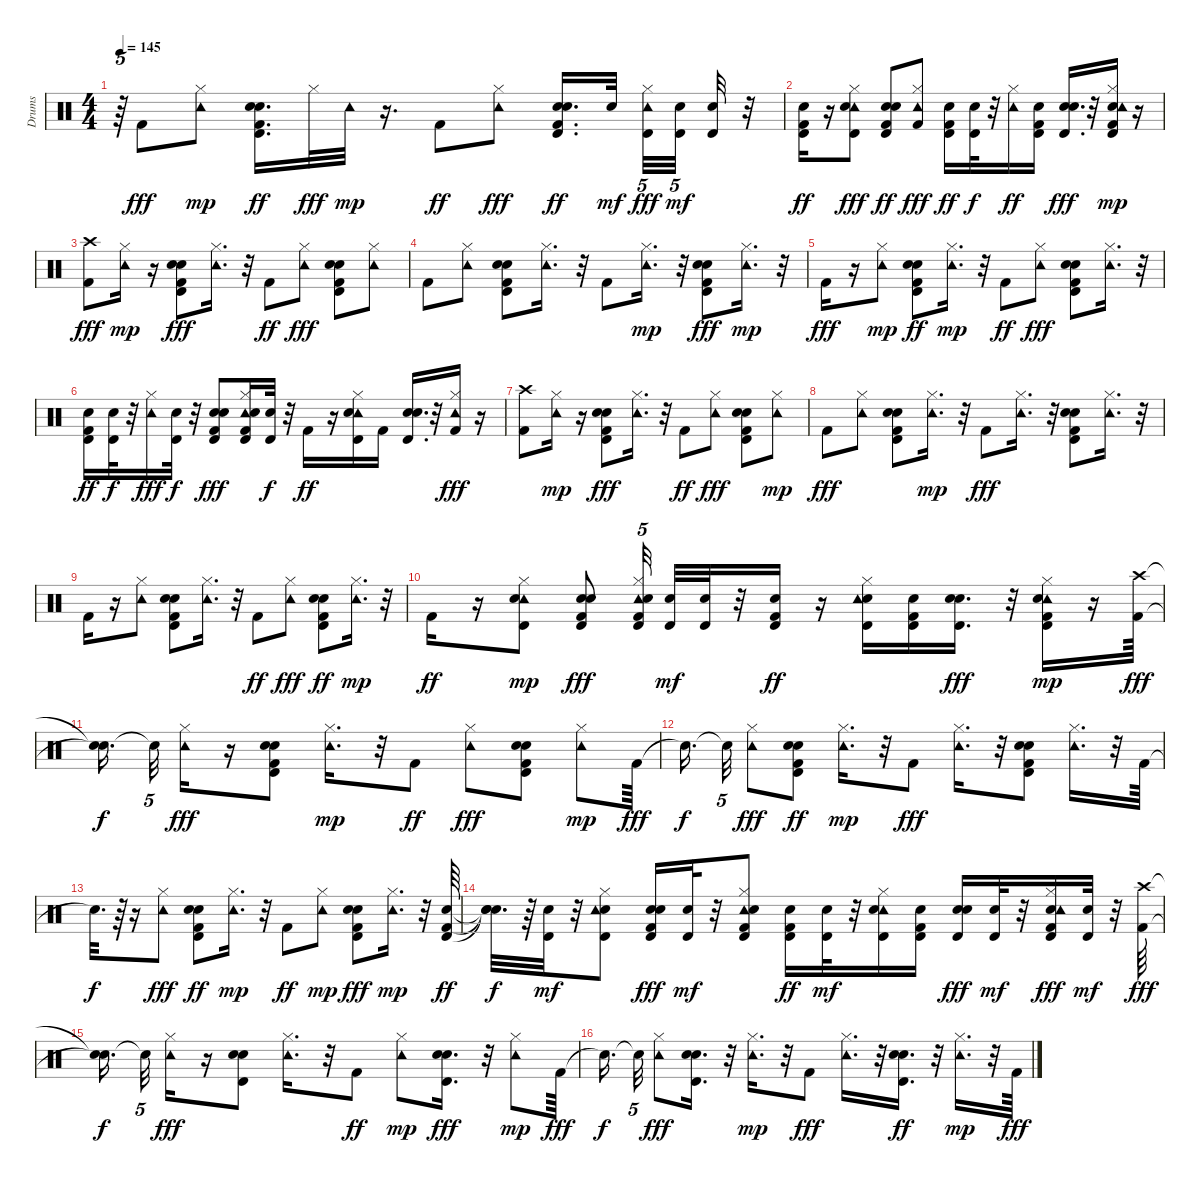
\track ("Drums" "Drums") {instrument percussion}
\staff {score}
\articulation defaults
\ts (4 4)
\tempo 145
\clef neutral
\ks c
r.64{tu (5 4) dy mp} "Kick (hit) 2".8{dy fff} ("Hi-Hat (closed)" "Tambourine (hit)").8{dy mp} ("Hand Clap (hit)" "Kick (hit) 2" "Snare (hit) 2" "Timbale high (hit)").16{d dy ff} "Hi-Hat (closed)".32{dy fff} "Tambourine (hit)".32{dy mp} r.16{d} "Kick (hit) 2".8{dy ff} ("Tambourine (hit)" "Hi-Hat (closed)").8{dy fff} ("Kick (hit) 2" "Hand Clap (hit)" "Snare (hit) 2" "Timbale high (hit)").16{d dy ff} "Snare (hit) 2".32{dy mf} ("Timbale high (hit)" "Tambourine (hit)" "Hi-Hat (closed)").32{tu (5 4) dy fff} ("Timbale high (hit)" "Snare (hit) 2").32{tu (5 4) dy mf} ("Snare (hit) 2" "Timbale high (hit)").32 r.32 |
("Kick (hit) 2" "Timbale high (hit)" "Snare (hit) 2").16{dy ff} r.16 ("Tambourine (hit)" "Timbale high (hit)" "Snare (hit) 2" "Hi-Hat (closed)").8{dy fff} ("Kick (hit) 2" "Timbale high (hit)" "Hand Clap (hit)" "Snare (hit) 2").8{dy ff} ("Tambourine (hit)" "Hi-Hat (closed)" "Kick (hit) 2").8{dy fff} ("Kick (hit) 2" "Snare (hit) 2" "Timbale high (hit)").16{dy ff} ("Timbale high (hit)" "Snare (hit) 2").32{dy f} r.32 ("Tambourine (hit)" "Hi-Hat (closed)").16{dy ff} ("Timbale high (hit)" "Kick (hit) 2" "Snare (hit) 2").16 ("Snare (hit) 2" "Timbale high (hit)" "Hand Clap (hit)").16{d dy fff} r.32 ("Snare (hit) 2" "Timbale high (hit)" "Hi-Hat (closed)" "Tambourine (hit)" "Kick (hit) 2").16{dy mp} r.16 |
("Kick (hit) 2" "Crash high (hit)").8{dy fff} ("Hi-Hat (closed)" "Tambourine (hit)").16{dy mp} r.16 ("Snare (hit) 2" "Kick (hit) 2" "Timbale high (hit)" "Hand Clap (hit)").8{dy fff} ("Tambourine (hit)" "Hi-Hat (closed)").16{d} r.32 "Kick (hit) 2".8{dy ff} ("Tambourine (hit)" "Hi-Hat (closed)").8{dy fff} ("Kick (hit) 2" "Snare (hit) 2" "Timbale high (hit)" "Hand Clap (hit)").8 ("Tambourine (hit)" "Hi-Hat (closed)").8 |
"Kick (hit) 2".8 ("Tambourine (hit)" "Hi-Hat (closed)").8 ("Timbale high (hit)" "Kick (hit) 2" "Snare (hit) 2" "Hand Clap (hit)").8 ("Tambourine (hit)" "Hi-Hat (closed)").16{d} r.32 "Kick (hit) 2".8 ("Hi-Hat (closed)" "Tambourine (hit)").16{d dy mp} r.32 ("Snare (hit) 2" "Kick (hit) 2" "Hand Clap (hit)" "Timbale high (hit)").8{dy fff} ("Hi-Hat (closed)" "Tambourine (hit)").16{d dy mp} r.32 |
"Kick (hit) 2".16{dy fff} r.16 ("Hi-Hat (closed)" "Tambourine (hit)").8{dy mp} ("Timbale high (hit)" "Hand Clap (hit)" "Kick (hit) 2" "Snare (hit) 2").8{dy ff} ("Hi-Hat (closed)" "Tambourine (hit)").16{d dy mp} r.32 "Kick (hit) 2".8{dy ff} ("Tambourine (hit)" "Hi-Hat (closed)").8{dy fff} ("Snare (hit) 2" "Timbale high (hit)" "Kick (hit) 2" "Hand Clap (hit)").8 ("Tambourine (hit)" "Hi-Hat (closed)").16{d} r.32 |
("Snare (hit) 2" "Kick (hit) 2" "Timbale high (hit)").16{dy ff} ("Timbale high (hit)" "Snare (hit) 2").32{dy f} r.32 ("Tambourine (hit)" "Hi-Hat (closed)").16{dy fff} ("Snare (hit) 2" "Timbale high (hit)").32{dy f} r.32 ("Snare (hit) 2" "Kick (hit) 2" "Timbale high (hit)" "Hand Clap (hit)").8{dy fff} ("Tambourine (hit)" "Kick (hit) 2" "Hi-Hat (closed)" "Snare (hit) 2" "Timbale high (hit)").16 ("Snare (hit) 2" "Timbale high (hit)").32{dy f} r.32 "Kick (hit) 2".16{dy ff} r.16 ("Tambourine (hit)" "Snare (hit) 2" "Hi-Hat (closed)" "Timbale high (hit)").16 "Kick (hit) 2".16 ("Hand Clap (hit)" "Timbale high (hit)" "Snare (hit) 2").16{d} r.32 ("Kick (hit) 2" "Tambourine (hit)" "Hi-Hat (closed)").16{dy fff} r.16 |
("Crash high (hit)" "Kick (hit) 2").8 ("Hi-Hat (closed)" "Tambourine (hit)").16{dy mp} r.16 ("Snare (hit) 2" "Kick (hit) 2" "Timbale high (hit)" "Hand Clap (hit)").8{dy fff} ("Tambourine (hit)" "Hi-Hat (closed)").16{d} r.32 "Kick (hit) 2".8{dy ff} ("Tambourine (hit)" "Hi-Hat (closed)").8{dy fff} ("Snare (hit) 2" "Kick (hit) 2" "Timbale high (hit)" "Hand Clap (hit)").8 ("Hi-Hat (closed)" "Tambourine (hit)").8{dy mp} |
"Kick (hit) 2".8{dy fff} ("Tambourine (hit)" "Hi-Hat (closed)").8 ("Timbale high (hit)" "Snare (hit) 2" "Kick (hit) 2" "Hand Clap (hit)").8 ("Hi-Hat (closed)" "Tambourine (hit)").16{d dy mp} r.32 "Kick (hit) 2".8{dy fff} ("Tambourine (hit)" "Hi-Hat (closed)").16{d} r.32 ("Timbale high (hit)" "Kick (hit) 2" "Snare (hit) 2" "Hand Clap (hit)").8 ("Tambourine (hit)" "Hi-Hat (closed)").16{d} r.32 |
"Kick (hit) 2".16 r.16 ("Tambourine (hit)" "Hi-Hat (closed)").8 ("Kick (hit) 2" "Snare (hit) 2" "Hand Clap (hit)" "Timbale high (hit)").8 ("Tambourine (hit)" "Hi-Hat (closed)").16{d} r.32 "Kick (hit) 2".8{dy ff} ("Tambourine (hit)" "Hi-Hat (closed)").8{dy fff} ("Hand Clap (hit)" "Timbale high (hit)" "Kick (hit) 2" "Snare (hit) 2").8{dy ff} ("Hi-Hat (closed)" "Tambourine (hit)").16{d dy mp} r.32 |
"Kick (hit) 2".16{dy ff} r.16 ("Timbale high (hit)" "Hi-Hat (closed)" "Tambourine (hit)" "Snare (hit) 2").8{dy mp} ("Kick (hit) 2" "Snare (hit) 2" "Hand Clap (hit)" "Timbale high (hit)").8{dy fff} ("Timbale high (hit)" "Tambourine (hit)" "Snare (hit) 2" "Kick (hit) 2" "Hi-Hat (closed)").32{tu (5 4)} ("Timbale high (hit)" "Snare (hit) 2").32{dy mf} ("Snare (hit) 2" "Timbale high (hit)").32 r.32 ("Timbale high (hit)" "Kick (hit) 2" "Snare (hit) 2").16{dy ff} r.16 ("Snare (hit) 2" "Timbale high (hit)" "Tambourine (hit)" "Hi-Hat (closed)").16 ("Kick (hit) 2" "Snare (hit) 2" "Timbale high (hit)").16 ("Timbale high (hit)" "Snare (hit) 2" "Hand Clap (hit)").16{d dy fff} r.32 ("Timbale high (hit)" "Hi-Hat (closed)" "Tambourine (hit)" "Kick (hit) 2" "Snare (hit) 2").16{dy mp} r.16 ("Kick (hit) 2" "Crash high (hit)").64{dy fff} |
("Snare (hit)"{t} "Snare (hit)"{t}).16{d dy f} "Snare (hit)"{t}.32{tu (5 4)} ("Tambourine (hit)" "Hi-Hat (closed)").16{dy fff} r.16 ("Snare (hit) 2" "Timbale high (hit)" "Kick (hit) 2" "Hand Clap (hit)").8 ("Hi-Hat (closed)" "Tambourine (hit)").16{d dy mp} r.32 "Kick (hit) 2".8{dy ff} ("Tambourine (hit)" "Hi-Hat (closed)").8{dy fff} ("Kick (hit) 2" "Timbale high (hit)" "Snare (hit) 2" "Hand Clap (hit)").8 ("Hi-Hat (closed)" "Tambourine (hit)").8{dy mp} "Kick (hit) 2".64{dy fff} |
"Snare (hit)"{t}.16{d dy f} "Snare (hit)"{t}.32{tu (5 4)} ("Tambourine (hit)" "Hi-Hat (closed)").8{dy fff} ("Hand Clap (hit)" "Snare (hit) 2" "Kick (hit) 2" "Timbale high (hit)").8{dy ff} ("Hi-Hat (closed)" "Tambourine (hit)").16{d dy mp} r.32 "Kick (hit) 2".8{dy fff} ("Tambourine (hit)" "Hi-Hat (closed)").16{d} r.32 ("Kick (hit) 2" "Snare (hit) 2" "Timbale high (hit)" "Hand Clap (hit)").8 ("Tambourine (hit)" "Hi-Hat (closed)").16{d} r.32 "Kick (hit) 2".64 |
"Snare (hit)"{t}.32{d dy f} r.64 r.16 ("Tambourine (hit)" "Hi-Hat (closed)").8{dy fff} ("Snare (hit) 2" "Hand Clap (hit)" "Kick (hit) 2" "Timbale high (hit)").8{dy ff} ("Hi-Hat (closed)" "Tambourine (hit)").16{d dy mp} r.32 "Kick (hit) 2".8{dy ff} ("Hi-Hat (closed)" "Tambourine (hit)").8{dy mp} ("Snare (hit) 2" "Kick (hit) 2" "Timbale high (hit)" "Hand Clap (hit)").8{dy fff} ("Hi-Hat (closed)" "Tambourine (hit)").16{d dy mp} r.32 ("Snare (hit) 2" "Kick (hit) 2" "Timbale high (hit)").64{dy ff} |
("Snare (hit)"{t} "Snare (hit)"{t} "Snare (hit)"{t}).32{d dy f} r.64 ("Snare (hit) 2" "Timbale high (hit)").32{dy mf} r.32 ("Snare (hit) 2" "Tambourine (hit)" "Hi-Hat (closed)" "Timbale high (hit)").8 ("Snare (hit) 2" "Timbale high (hit)" "Kick (hit) 2" "Hand Clap (hit)").16{dy fff} ("Snare (hit) 2" "Timbale high (hit)").32{dy mf} r.32 ("Kick (hit) 2" "Timbale high (hit)" "Hi-Hat (closed)" "Tambourine (hit)" "Snare (hit) 2").8 ("Snare (hit) 2" "Timbale high (hit)" "Kick (hit) 2").16{dy ff} ("Snare (hit) 2" "Timbale high (hit)").32{dy mf} r.32 ("Hi-Hat (closed)" "Timbale high (hit)" "Tambourine (hit)" "Snare (hit) 2").16 ("Kick (hit) 2" "Snare (hit) 2" "Timbale high (hit)").16 ("Timbale high (hit)" "Snare (hit) 2" "Hand Clap (hit)").16{dy fff} ("Snare (hit) 2" "Timbale high (hit)").32{dy mf} r.32 ("Kick (hit) 2" "Snare (hit) 2" "Timbale high (hit)" "Tambourine (hit)" "Hi-Hat (closed)").16{dy fff} ("Snare (hit) 2" "Timbale high (hit)").32{dy mf} r.32 ("Kick (hit) 2" "Crash high (hit)").64{dy fff} |
("Snare (hit)"{t} "Snare (hit)"{t}).16{d dy f} "Snare (hit)"{t}.32{tu (5 4)} ("Tambourine (hit)" "Hi-Hat (closed)").16{dy fff} r.16 ("Hand Clap (hit)" "Snare (hit) 2" "Timbale high (hit)").8 ("Tambourine (hit)" "Hi-Hat (closed)").16{d} r.32 "Kick (hit) 2".8{dy ff} ("Hi-Hat (closed)" "Tambourine (hit)").8{dy mp} ("Timbale high (hit)" "Hand Clap (hit)" "Snare (hit) 2").16{d dy fff} r.32 ("Hi-Hat (closed)" "Tambourine (hit)").8{dy mp} "Kick (hit) 2".64{dy fff} |
"Snare (hit)"{t}.16{d dy f} "Snare (hit)"{t}.32{tu (5 4)} ("Tambourine (hit)" "Hi-Hat (closed)").8{dy fff} ("Snare (hit) 2" "Timbale high (hit)" "Hand Clap (hit)").16{d} r.32 ("Hi-Hat (closed)" "Tambourine (hit)").16{d dy mp} r.32 "Kick (hit) 2".8{dy fff} ("Tambourine (hit)" "Hi-Hat (closed)").16{d} r.32 ("Timbale high (hit)" "Hand Clap (hit)" "Snare (hit) 2").16{d dy ff} r.32 ("Hi-Hat (closed)" "Tambourine (hit)").16{d dy mp} r.32 "Kick (hit) 2".64{dy fff}
